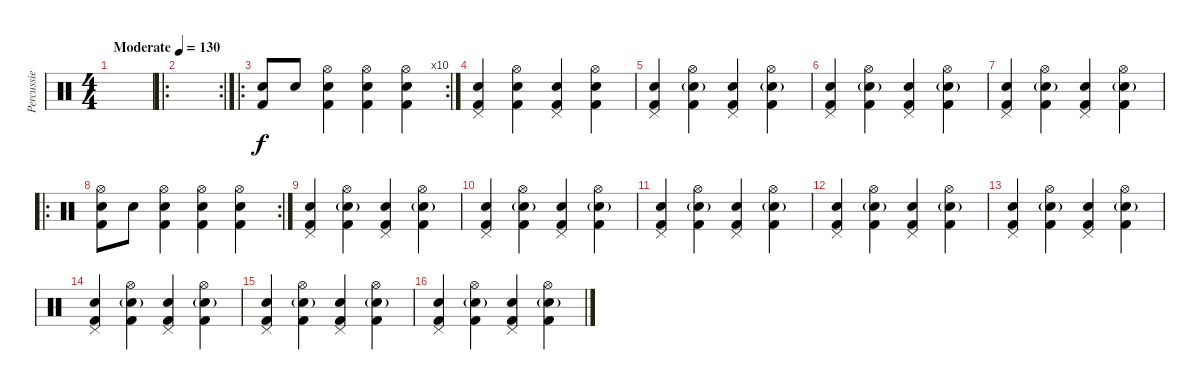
\track ("Percussie" "Percussie") {instrument percussion}
\staff {score}
\articulation defaults
\ts (4 4)
\tempo (130 "Moderate")
\clef neutral
\ks c
|
\ro
\rc 2
|
\ro
\rc 10
("Snare (hit) 2" "Kick (hit) 2").8 "Snare (hit) 2".8 ("Hi-Hat (open)" "Snare (hit) 2" "Kick (hit) 2").4 ("Hi-Hat (open)" "Snare (hit) 2" "Kick (hit) 2").4 ("Hi-Hat (open)" "Snare (hit) 2" "Kick (hit) 2").4 |
("Pedal Hi-Hat (hit)" "Snare (hit) 2" "Kick (hit) 2").4 ("Hi-Hat (open)" "Snare (hit) 2" "Kick (hit) 2").4 ("Pedal Hi-Hat (hit)" "Snare (hit) 2" "Kick (hit) 2").4 ("Hi-Hat (open)" "Snare (hit) 2" "Kick (hit) 2").4 |
("Pedal Hi-Hat (hit)" "Snare (hit) 2" "Kick (hit) 2").4 ("Hi-Hat (open)" "Snare (hit) 2"{g} "Kick (hit) 2").4 ("Pedal Hi-Hat (hit)" "Snare (hit) 2" "Kick (hit) 2").4 ("Hi-Hat (open)" "Snare (hit) 2"{g} "Kick (hit) 2").4 |
("Pedal Hi-Hat (hit)" "Snare (hit) 2" "Kick (hit) 2").4 ("Hi-Hat (open)" "Snare (hit) 2"{g} "Kick (hit) 2").4 ("Pedal Hi-Hat (hit)" "Snare (hit) 2" "Kick (hit) 2").4 ("Hi-Hat (open)" "Snare (hit) 2"{g} "Kick (hit) 2").4 |
("Pedal Hi-Hat (hit)" "Snare (hit) 2" "Kick (hit) 2").4 ("Hi-Hat (open)" "Snare (hit) 2"{g} "Kick (hit) 2").4 ("Pedal Hi-Hat (hit)" "Snare (hit) 2" "Kick (hit) 2").4 ("Hi-Hat (open)" "Snare (hit) 2"{g} "Kick (hit) 2").4 |
\ro
\rc 2
("Hi-Hat (open)" "Snare (hit) 2" "Kick (hit) 2").8 "Snare (hit) 2".8 ("Hi-Hat (open)" "Snare (hit) 2" "Kick (hit) 2").4 ("Hi-Hat (open)" "Snare (hit) 2" "Kick (hit) 2").4 ("Hi-Hat (open)" "Snare (hit) 2" "Kick (hit) 2").4 |
("Pedal Hi-Hat (hit)" "Snare (hit) 2" "Kick (hit) 2").4 ("Hi-Hat (open)" "Snare (hit) 2"{g} "Kick (hit) 2").4 ("Pedal Hi-Hat (hit)" "Snare (hit) 2" "Kick (hit) 2").4 ("Hi-Hat (open)" "Snare (hit) 2"{g} "Kick (hit) 2").4 |
("Pedal Hi-Hat (hit)" "Snare (hit) 2" "Kick (hit) 2").4 ("Hi-Hat (open)" "Snare (hit) 2"{g} "Kick (hit) 2").4 ("Pedal Hi-Hat (hit)" "Snare (hit) 2" "Kick (hit) 2").4 ("Hi-Hat (open)" "Snare (hit) 2"{g} "Kick (hit) 2").4 |
("Pedal Hi-Hat (hit)" "Snare (hit) 2" "Kick (hit) 2").4 ("Hi-Hat (open)" "Snare (hit) 2"{g} "Kick (hit) 2").4 ("Pedal Hi-Hat (hit)" "Snare (hit) 2" "Kick (hit) 2").4 ("Hi-Hat (open)" "Snare (hit) 2"{g} "Kick (hit) 2").4 |
("Pedal Hi-Hat (hit)" "Snare (hit) 2" "Kick (hit) 2").4 ("Hi-Hat (open)" "Snare (hit) 2"{g} "Kick (hit) 2").4 ("Pedal Hi-Hat (hit)" "Snare (hit) 2" "Kick (hit) 2").4 ("Hi-Hat (open)" "Snare (hit) 2"{g} "Kick (hit) 2").4 |
("Pedal Hi-Hat (hit)" "Snare (hit) 2" "Kick (hit) 2").4 ("Hi-Hat (open)" "Snare (hit) 2"{g} "Kick (hit) 2").4 ("Pedal Hi-Hat (hit)" "Snare (hit) 2" "Kick (hit) 2").4 ("Hi-Hat (open)" "Snare (hit) 2"{g} "Kick (hit) 2").4 |
("Pedal Hi-Hat (hit)" "Snare (hit) 2" "Kick (hit) 2").4 ("Hi-Hat (open)" "Snare (hit) 2"{g} "Kick (hit) 2").4 ("Pedal Hi-Hat (hit)" "Snare (hit) 2" "Kick (hit) 2").4 ("Hi-Hat (open)" "Snare (hit) 2"{g} "Kick (hit) 2").4 |
("Pedal Hi-Hat (hit)" "Snare (hit) 2" "Kick (hit) 2").4 ("Hi-Hat (open)" "Snare (hit) 2"{g} "Kick (hit) 2").4 ("Pedal Hi-Hat (hit)" "Snare (hit) 2" "Kick (hit) 2").4 ("Hi-Hat (open)" "Snare (hit) 2"{g} "Kick (hit) 2").4 |
("Pedal Hi-Hat (hit)" "Snare (hit) 2" "Kick (hit) 2").4 ("Hi-Hat (open)" "Snare (hit) 2"{g} "Kick (hit) 2").4 ("Pedal Hi-Hat (hit)" "Snare (hit) 2" "Kick (hit) 2").4 ("Hi-Hat (open)" "Snare (hit) 2"{g} "Kick (hit) 2").4
